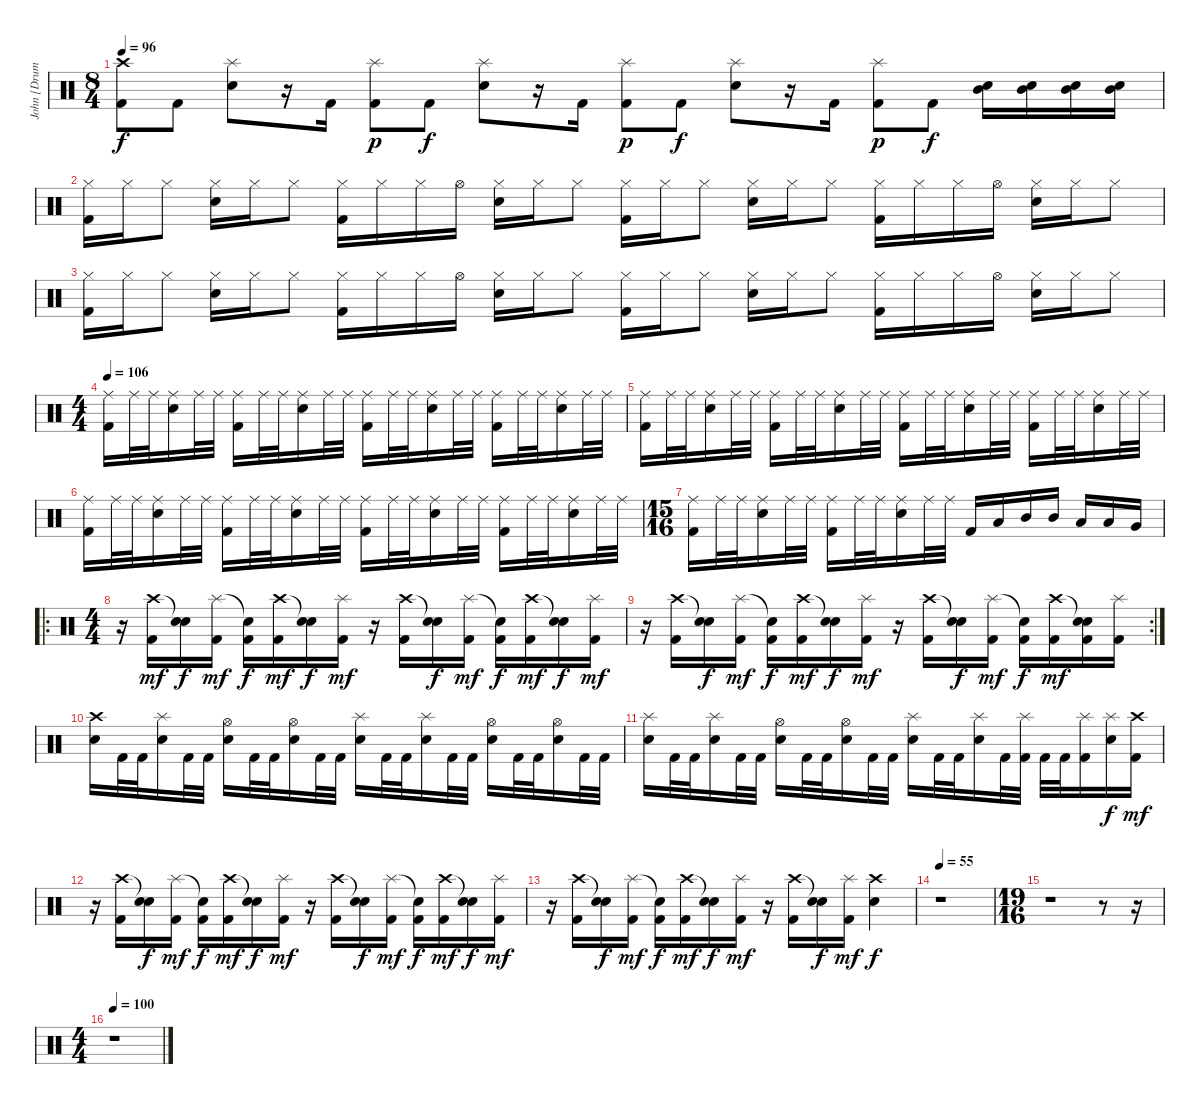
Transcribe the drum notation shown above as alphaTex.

\track ("John [Drums]" "John [Drum") {instrument percussion}
\staff {score}
\articulation defaults
\ts (8 4)
\tempo 96
\clef neutral
\ks c
("Crash high (hit)" "Kick (hit) 2").8{dy f} "Kick (hit) 2".8 ("Splash (hit)" "Electric Snare (hit)").8 r.16 "Kick (hit) 2".16 ("Splash (hit)" "Kick (hit) 2").8{dy p} "Kick (hit) 2".8{dy f} ("Splash (hit)" "Electric Snare (hit)").8 r.16 "Kick (hit) 2".16 ("Splash (hit)" "Kick (hit) 2").8{dy p} "Kick (hit) 2".8{dy f} ("Splash (hit)" "Electric Snare (hit)").8 r.16 "Kick (hit) 2".16 ("Splash (hit)" "Kick (hit) 2").8{dy p} "Kick (hit) 2".8{dy f} ("Electric Snare (hit)" "Mid Tom (hit)").16 ("Electric Snare (hit)" "Mid Tom (hit)").16 ("Electric Snare (hit)" "Mid Tom (hit)").16 ("Electric Snare (hit)" "Mid Tom (hit)").16 |
("Hi-Hat (closed)" "Kick (hit) 2").16 "Hi-Hat (closed)".16 "Hi-Hat (closed)".8 ("Hi-Hat (closed)" "Electric Snare (hit)").16 "Hi-Hat (closed)".16 "Hi-Hat (closed)".8 ("Hi-Hat (closed)" "Kick (hit) 2").16 "Hi-Hat (closed)".16 "Hi-Hat (closed)".16 "Hi-Hat (open)".16 ("Hi-Hat (closed)" "Electric Snare (hit)").16 "Hi-Hat (closed)".16 "Hi-Hat (closed)".8 ("Hi-Hat (closed)" "Kick (hit) 2").16 "Hi-Hat (closed)".16 "Hi-Hat (closed)".8 ("Hi-Hat (closed)" "Electric Snare (hit)").16 "Hi-Hat (closed)".16 "Hi-Hat (closed)".8 ("Hi-Hat (closed)" "Kick (hit) 2").16 "Hi-Hat (closed)".16 "Hi-Hat (closed)".16 "Hi-Hat (open)".16 ("Hi-Hat (closed)" "Electric Snare (hit)").16 "Hi-Hat (closed)".16 "Hi-Hat (closed)".8 |
("Hi-Hat (closed)" "Kick (hit) 2").16 "Hi-Hat (closed)".16 "Hi-Hat (closed)".8 ("Hi-Hat (closed)" "Electric Snare (hit)").16 "Hi-Hat (closed)".16 "Hi-Hat (closed)".8 ("Hi-Hat (closed)" "Kick (hit) 2").16 "Hi-Hat (closed)".16 "Hi-Hat (closed)".16 "Hi-Hat (open)".16 ("Hi-Hat (closed)" "Electric Snare (hit)").16 "Hi-Hat (closed)".16 "Hi-Hat (closed)".8 ("Hi-Hat (closed)" "Kick (hit) 2").16 "Hi-Hat (closed)".16 "Hi-Hat (closed)".8 ("Hi-Hat (closed)" "Electric Snare (hit)").16 "Hi-Hat (closed)".16 "Hi-Hat (closed)".8 ("Hi-Hat (closed)" "Kick (hit) 2").16 "Hi-Hat (closed)".16 "Hi-Hat (closed)".16 "Hi-Hat (open)".16 ("Hi-Hat (closed)" "Electric Snare (hit)").16 "Hi-Hat (closed)".16 "Hi-Hat (closed)".8 |
\ts (4 4)
\tempo 106
("Ride (middle)" "Kick (hit) 2").16 "Ride (middle)".32 "Ride (middle)".32 ("Ride (middle)" "Electric Snare (hit)").16 "Ride (middle)".32 "Ride (middle)".32 ("Ride (middle)" "Kick (hit) 2").16 "Ride (middle)".32 "Ride (middle)".32 ("Ride (middle)" "Electric Snare (hit)").16 "Ride (middle)".32 "Ride (middle)".32 ("Ride (middle)" "Kick (hit) 2").16 "Ride (middle)".32 "Ride (middle)".32 ("Ride (middle)" "Electric Snare (hit)").16 "Ride (middle)".32 "Ride (middle)".32 ("Ride (middle)" "Kick (hit) 2").16 "Ride (middle)".32 "Ride (middle)".32 ("Ride (middle)" "Electric Snare (hit)").16 "Ride (middle)".32 "Ride (middle)".32 |
("Ride (middle)" "Kick (hit) 2").16 "Ride (middle)".32 "Ride (middle)".32 ("Ride (middle)" "Electric Snare (hit)").16 "Ride (middle)".32 "Ride (middle)".32 ("Ride (middle)" "Kick (hit) 2").16 "Ride (middle)".32 "Ride (middle)".32 ("Ride (middle)" "Electric Snare (hit)").16 "Ride (middle)".32 "Ride (middle)".32 ("Ride (middle)" "Kick (hit) 2").16 "Ride (middle)".32 "Ride (middle)".32 ("Ride (middle)" "Electric Snare (hit)").16 "Ride (middle)".32 "Ride (middle)".32 ("Ride (middle)" "Kick (hit) 2").16 "Ride (middle)".32 "Ride (middle)".32 ("Ride (middle)" "Electric Snare (hit)").16 "Ride (middle)".32 "Ride (middle)".32 |
("Ride (middle)" "Kick (hit) 2").16 "Ride (middle)".32 "Ride (middle)".32 ("Ride (middle)" "Electric Snare (hit)").16 "Ride (middle)".32 "Ride (middle)".32 ("Ride (middle)" "Kick (hit) 2").16 "Ride (middle)".32 "Ride (middle)".32 ("Ride (middle)" "Electric Snare (hit)").16 "Ride (middle)".32 "Ride (middle)".32 ("Ride (middle)" "Kick (hit) 2").16 "Ride (middle)".32 "Ride (middle)".32 ("Ride (middle)" "Electric Snare (hit)").16 "Ride (middle)".32 "Ride (middle)".32 ("Ride (middle)" "Kick (hit) 2").16 "Ride (middle)".32 "Ride (middle)".32 ("Ride (middle)" "Electric Snare (hit)").16 "Ride (middle)".32 "Ride (middle)".32 |
\ts (15 16)
("Ride (middle)" "Kick (hit) 2").16 "Ride (middle)".32 "Ride (middle)".32 ("Ride (middle)" "Electric Snare (hit)").16 "Ride (middle)".32 "Ride (middle)".32 ("Ride (middle)" "Kick (hit) 2").16 "Ride (middle)".32 "Ride (middle)".32 ("Ride (middle)" "Electric Snare (hit)").16 "Ride (middle)".32 "Ride (middle)".32 "Kick (hit) 2".16 "Low Tom (hit)".16 "Mid Tom (hit)".16 "Mid Tom (hit)".16 "Low Tom (hit)".16 "Low Tom (hit)".16 "Very Low Tom (hit)".16 |
\ro
\ts (4 4)
r.16 ("Crash high (hit)" "Kick (hit) 2").16{dy mf} ("Snare (hit)"{t} "Electric Snare (hit)").16{dy f} ("Splash (hit)" "Kick (hit) 2").16{dy mf} ("Snare (hit)"{t} "Kick (hit) 2").16{dy f} ("Crash high (hit)" "Kick (hit) 2").16{dy mf} ("Snare (hit)"{t} "Electric Snare (hit)").16{dy f} ("Splash (hit)" "Kick (hit) 2").16{dy mf} r.16 ("Crash high (hit)" "Kick (hit) 2").16 ("Snare (hit)"{t} "Electric Snare (hit)").16{dy f} ("Splash (hit)" "Kick (hit) 2").16{dy mf} ("Snare (hit)"{t} "Kick (hit) 2").16{dy f} ("Crash high (hit)" "Kick (hit) 2").16{dy mf} ("Snare (hit)"{t} "Electric Snare (hit)").16{dy f} ("Splash (hit)" "Kick (hit) 2").16{dy mf} |
\rc 2
r.16 ("Crash high (hit)" "Kick (hit) 2").16 ("Snare (hit)"{t} "Electric Snare (hit)").16{dy f} ("Splash (hit)" "Kick (hit) 2").16{dy mf} ("Snare (hit)"{t} "Kick (hit) 2").16{dy f} ("Crash high (hit)" "Kick (hit) 2").16{dy mf} ("Snare (hit)"{t} "Electric Snare (hit)").16{dy f} ("Splash (hit)" "Kick (hit) 2").16{dy mf} r.16 ("Crash high (hit)" "Kick (hit) 2").16 ("Snare (hit)"{t} "Electric Snare (hit)").16{dy f} ("Splash (hit)" "Kick (hit) 2").16{dy mf} ("Snare (hit)"{t} "Kick (hit) 2").16{dy f} ("Crash high (hit)" "Kick (hit) 2").16{dy mf} ("Snare (hit)"{t} "Electric Snare (hit)" "Kick (hit) 2").16 ("Splash (hit)" "Kick (hit) 2").16 |
("Crash high (hit)" "Electric Snare (hit)").16 "Kick (hit) 2".32 "Kick (hit) 2".32 ("Splash (hit)" "Electric Snare (hit)").16 "Kick (hit) 2".32 "Kick (hit) 2".32 ("Hi-Hat (open)" "Electric Snare (hit)").16 "Kick (hit) 2".32 "Kick (hit) 2".32 ("Hi-Hat (open)" "Electric Snare (hit)").16 "Kick (hit) 2".32 "Kick (hit) 2".32 ("Splash (hit)" "Electric Snare (hit)").16 "Kick (hit) 2".32 "Kick (hit) 2".32 ("Splash (hit)" "Electric Snare (hit)").16 "Kick (hit) 2".32 "Kick (hit) 2".32 ("Hi-Hat (open)" "Electric Snare (hit)").16 "Kick (hit) 2".32 "Kick (hit) 2".32 ("Hi-Hat (open)" "Electric Snare (hit)").16 "Kick (hit) 2".32 "Kick (hit) 2".32 |
("Splash (hit)" "Electric Snare (hit)").16 "Kick (hit) 2".32 "Kick (hit) 2".32 ("Splash (hit)" "Electric Snare (hit)").16 "Kick (hit) 2".32 "Kick (hit) 2".32 ("Hi-Hat (open)" "Electric Snare (hit)").16 "Kick (hit) 2".32 "Kick (hit) 2".32 ("Hi-Hat (open)" "Electric Snare (hit)").16 "Kick (hit) 2".32 "Kick (hit) 2".32 ("Splash (hit)" "Electric Snare (hit)").16 "Kick (hit) 2".32 "Kick (hit) 2".32 ("Splash (hit)" "Electric Snare (hit)").16 "Kick (hit) 2".32 ("Splash (hit)" "Kick (hit) 2").32 "Kick (hit) 2".32 "Kick (hit) 2".32 ("Splash (hit)" "Kick (hit) 2").16 ("Splash (hit)" "Electric Snare (hit)").16{dy f} ("Crash high (hit)" "Kick (hit) 2").16{dy mf} |
r.16 ("Crash high (hit)" "Kick (hit) 2").16 ("Snare (hit)"{t} "Electric Snare (hit)").16{dy f} ("Splash (hit)" "Kick (hit) 2").16{dy mf} ("Snare (hit)"{t} "Kick (hit) 2").16{dy f} ("Crash high (hit)" "Kick (hit) 2").16{dy mf} ("Snare (hit)"{t} "Electric Snare (hit)").16{dy f} ("Splash (hit)" "Kick (hit) 2").16{dy mf} r.16 ("Crash high (hit)" "Kick (hit) 2").16 ("Snare (hit)"{t} "Electric Snare (hit)").16{dy f} ("Splash (hit)" "Kick (hit) 2").16{dy mf} ("Snare (hit)"{t} "Kick (hit) 2").16{dy f} ("Crash high (hit)" "Kick (hit) 2").16{dy mf} ("Snare (hit)"{t} "Electric Snare (hit)").16{dy f} ("Splash (hit)" "Kick (hit) 2").16{dy mf} |
r.16 ("Crash high (hit)" "Kick (hit) 2").16 ("Snare (hit)"{t} "Electric Snare (hit)").16{dy f} ("Splash (hit)" "Kick (hit) 2").16{dy mf} ("Snare (hit)"{t} "Kick (hit) 2").16{dy f} ("Crash high (hit)" "Kick (hit) 2").16{dy mf} ("Snare (hit)"{t} "Electric Snare (hit)").16{dy f} ("Splash (hit)" "Kick (hit) 2").16{dy mf} r.16 ("Crash high (hit)" "Kick (hit) 2").16 ("Snare (hit)"{t} "Electric Snare (hit)").16{dy f} ("Splash (hit)" "Kick (hit) 2").16{dy mf} ("Crash high (hit)" "Electric Snare (hit)").4{dy f} |
\tempo 55
r.1 |
\ts (19 16)
r.1 r.8 r.16 |
\ts (4 4)
\tempo 100
r.1
